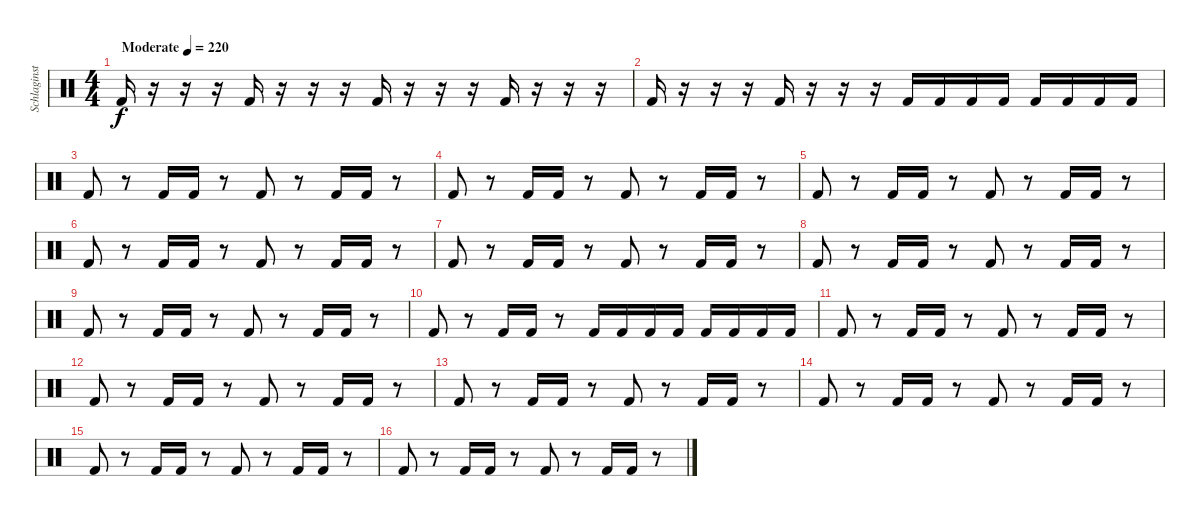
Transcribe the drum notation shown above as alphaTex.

\track ("Schlaginstrumente - Auswahl" "Schlaginst") {instrument percussion}
\staff {score}
\articulation defaults
\ts (4 4)
\tempo (220 "Moderate")
\clef neutral
\ks c "Kick (hit) 2".16{dy f}
r.16 r.16 r.16 "Kick (hit) 2".16 r.16 r.16 r.16 "Kick (hit) 2".16 r.16 r.16 r.16 "Kick (hit) 2".16 r.16 r.16 r.16 |
"Kick (hit) 2".16 r.16 r.16 r.16 "Kick (hit) 2".16 r.16 r.16 r.16 "Kick (hit) 2".16 "Kick (hit) 2".16 "Kick (hit) 2".16 "Kick (hit) 2".16 "Kick (hit) 2".16 "Kick (hit) 2".16 "Kick (hit) 2".16 "Kick (hit) 2".16 |
"Kick (hit) 2".8 r.8 "Kick (hit) 2".16 "Kick (hit) 2".16 r.8 "Kick (hit) 2".8 r.8 "Kick (hit) 2".16 "Kick (hit) 2".16 r.8 |
"Kick (hit) 2".8 r.8 "Kick (hit) 2".16 "Kick (hit) 2".16 r.8 "Kick (hit) 2".8 r.8 "Kick (hit) 2".16 "Kick (hit) 2".16 r.8 |
"Kick (hit) 2".8 r.8 "Kick (hit) 2".16 "Kick (hit) 2".16 r.8 "Kick (hit) 2".8 r.8 "Kick (hit) 2".16 "Kick (hit) 2".16 r.8 |
"Kick (hit) 2".8 r.8 "Kick (hit) 2".16 "Kick (hit) 2".16 r.8 "Kick (hit) 2".8 r.8 "Kick (hit) 2".16 "Kick (hit) 2".16 r.8 |
"Kick (hit) 2".8 r.8 "Kick (hit) 2".16 "Kick (hit) 2".16 r.8 "Kick (hit) 2".8 r.8 "Kick (hit) 2".16 "Kick (hit) 2".16 r.8 |
"Kick (hit) 2".8 r.8 "Kick (hit) 2".16 "Kick (hit) 2".16 r.8 "Kick (hit) 2".8 r.8 "Kick (hit) 2".16 "Kick (hit) 2".16 r.8 |
"Kick (hit) 2".8 r.8 "Kick (hit) 2".16 "Kick (hit) 2".16 r.8 "Kick (hit) 2".8 r.8 "Kick (hit) 2".16 "Kick (hit) 2".16 r.8 |
"Kick (hit) 2".8 r.8 "Kick (hit) 2".16 "Kick (hit) 2".16 r.8 "Kick (hit) 2".16 "Kick (hit) 2".16 "Kick (hit) 2".16 "Kick (hit) 2".16 "Kick (hit) 2".16 "Kick (hit) 2".16 "Kick (hit) 2".16 "Kick (hit) 2".16 |
"Kick (hit) 2".8 r.8 "Kick (hit) 2".16 "Kick (hit) 2".16 r.8 "Kick (hit) 2".8 r.8 "Kick (hit) 2".16 "Kick (hit) 2".16 r.8 |
"Kick (hit) 2".8 r.8 "Kick (hit) 2".16 "Kick (hit) 2".16 r.8 "Kick (hit) 2".8 r.8 "Kick (hit) 2".16 "Kick (hit) 2".16 r.8 |
"Kick (hit) 2".8 r.8 "Kick (hit) 2".16 "Kick (hit) 2".16 r.8 "Kick (hit) 2".8 r.8 "Kick (hit) 2".16 "Kick (hit) 2".16 r.8 |
"Kick (hit) 2".8 r.8 "Kick (hit) 2".16 "Kick (hit) 2".16 r.8 "Kick (hit) 2".8 r.8 "Kick (hit) 2".16 "Kick (hit) 2".16 r.8 |
"Kick (hit) 2".8 r.8 "Kick (hit) 2".16 "Kick (hit) 2".16 r.8 "Kick (hit) 2".8 r.8 "Kick (hit) 2".16 "Kick (hit) 2".16 r.8 |
"Kick (hit) 2".8 r.8 "Kick (hit) 2".16 "Kick (hit) 2".16 r.8 "Kick (hit) 2".8 r.8 "Kick (hit) 2".16 "Kick (hit) 2".16 r.8
